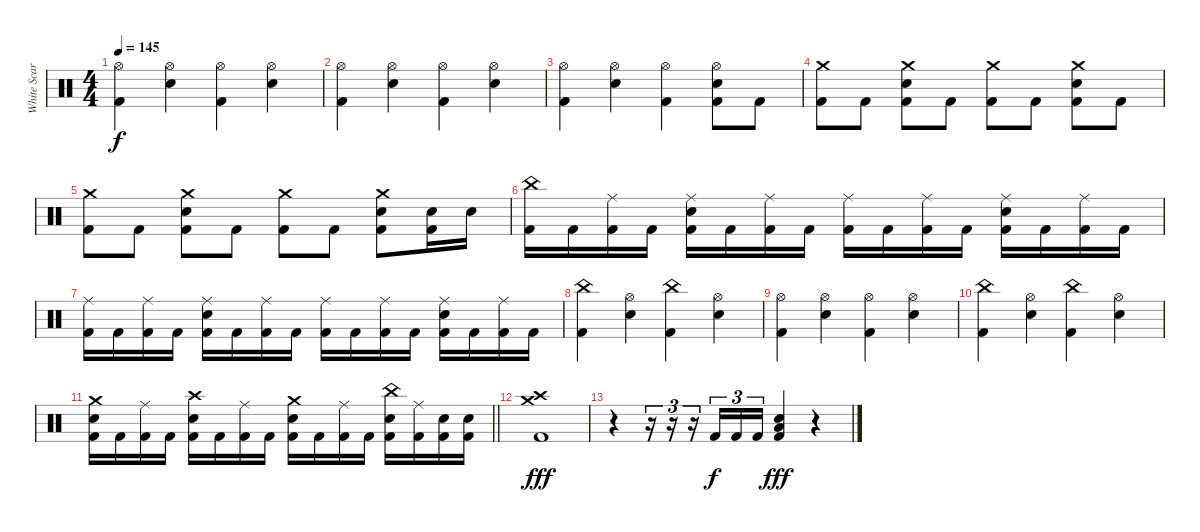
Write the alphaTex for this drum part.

\track ("White Scar" "White Scar") {instrument percussion}
\staff {score}
\articulation defaults
\ts (4 4)
\tempo 145
\clef neutral
\ks c
("Hi-Hat (open)" "Kick (hit) 2").4{dy f} ("Hi-Hat (open)" "Snare (hit) 2").4 ("Hi-Hat (open)" "Kick (hit) 2").4 ("Hi-Hat (open)" "Snare (hit) 2").4 |
("Hi-Hat (open)" "Kick (hit) 2").4 ("Hi-Hat (open)" "Snare (hit) 2").4 ("Hi-Hat (open)" "Kick (hit) 2").4 ("Hi-Hat (open)" "Snare (hit) 2").4 |
("Hi-Hat (open)" "Kick (hit) 2").4 ("Hi-Hat (open)" "Snare (hit) 2").4 ("Hi-Hat (open)" "Kick (hit) 2").4 ("Hi-Hat (open)" "Snare (hit) 2" "Kick (hit) 2").8 "Kick (hit) 2".8 |
("Crash medium (hit)" "Kick (hit) 2").8 "Kick (hit) 2".8 ("Snare (hit) 2" "Crash medium (hit)" "Kick (hit) 2").8 "Kick (hit) 2".8 ("Crash medium (hit)" "Kick (hit) 2").8 "Kick (hit) 2".8 ("Snare (hit) 2" "Crash medium (hit)" "Kick (hit) 2").8 "Kick (hit) 2".8 |
("Crash medium (hit)" "Kick (hit) 2").8 "Kick (hit) 2".8 ("Snare (hit) 2" "Crash medium (hit)" "Kick (hit) 2").8 "Kick (hit) 2".8 ("Crash medium (hit)" "Kick (hit) 2").8 "Kick (hit) 2".8 ("Snare (hit) 2" "Crash medium (hit)" "Kick (hit) 2").8 ("Snare (hit) 2" "Kick (hit) 2").16 "Snare (hit) 2".16 |
("China (hit)" "Kick (hit) 2").16 "Kick (hit) 2".16 ("Ride (middle)" "Kick (hit) 2").16 "Kick (hit) 2".16 ("Snare (hit) 2" "Ride (middle)" "Kick (hit) 2").16 "Kick (hit) 2".16 ("Ride (middle)" "Kick (hit) 2").16 "Kick (hit) 2".16 ("Ride (middle)" "Kick (hit) 2").16 "Kick (hit) 2".16 ("Ride (middle)" "Kick (hit) 2").16 "Kick (hit) 2".16 ("Snare (hit) 2" "Ride (middle)" "Kick (hit) 2").16 "Kick (hit) 2".16 ("Ride (middle)" "Kick (hit) 2").16 "Kick (hit) 2".16 |
("Ride (middle)" "Kick (hit) 2").16 "Kick (hit) 2".16 ("Ride (middle)" "Kick (hit) 2").16 "Kick (hit) 2".16 ("Snare (hit) 2" "Ride (middle)" "Kick (hit) 2").16 "Kick (hit) 2".16 ("Ride (middle)" "Kick (hit) 2").16 "Kick (hit) 2".16 ("Ride (middle)" "Kick (hit) 2").16 "Kick (hit) 2".16 ("Ride (middle)" "Kick (hit) 2").16 "Kick (hit) 2".16 ("Snare (hit) 2" "Ride (middle)" "Kick (hit) 2").16 "Kick (hit) 2".16 ("Ride (middle)" "Kick (hit) 2").16 "Kick (hit) 2".16 |
("China (hit)" "Kick (hit) 2").4 ("Hi-Hat (open)" "Snare (hit) 2").4 ("China (hit)" "Kick (hit) 2").4 ("Hi-Hat (open)" "Snare (hit) 2").4 |
("Hi-Hat (open)" "Kick (hit) 2").4 ("Hi-Hat (open)" "Snare (hit) 2").4 ("Hi-Hat (open)" "Kick (hit) 2").4 ("Hi-Hat (open)" "Snare (hit) 2").4 |
("China (hit)" "Kick (hit) 2").4 ("Hi-Hat (open)" "Snare (hit) 2").4 ("China (hit)" "Kick (hit) 2").4 ("Hi-Hat (open)" "Snare (hit) 2").4 |
\barLineRight lightlight
("Snare (hit) 2" "Crash medium (hit)" "Kick (hit) 2").16 "Kick (hit) 2".16 ("Ride (middle)" "Kick (hit) 2").16 "Kick (hit) 2".16 ("Snare (hit) 2" "Crash high (hit)" "Kick (hit) 2").16 "Kick (hit) 2".16 ("Ride (middle)" "Kick (hit) 2").16 "Kick (hit) 2".16 ("Snare (hit) 2" "Crash medium (hit)" "Kick (hit) 2").16 "Kick (hit) 2".16 ("Ride (middle)" "Kick (hit) 2").16 "Kick (hit) 2".16 ("Snare (hit) 2" "China (hit)" "Kick (hit) 2").16 ("Ride (middle)" "Kick (hit) 2").16 ("Snare (hit) 2" "Kick (hit) 2").16 ("Snare (hit) 2" "Kick (hit) 2").16 |
("Crash high (hit)" "Crash medium (hit)" "Kick (hit) 2").1{dy fff} |
r.4 r.16{tu (3 2)} r.16{tu (3 2)} r.16{tu (3 2)} "Kick (hit) 2".16{tu (3 2) dy f} "Kick (hit) 2".16{tu (3 2)} "Kick (hit) 2".16{tu (3 2)} ("Snare (hit) 2" "Low Floor Tom (hit)" "Kick (hit) 2").4{dy fff} r.4
